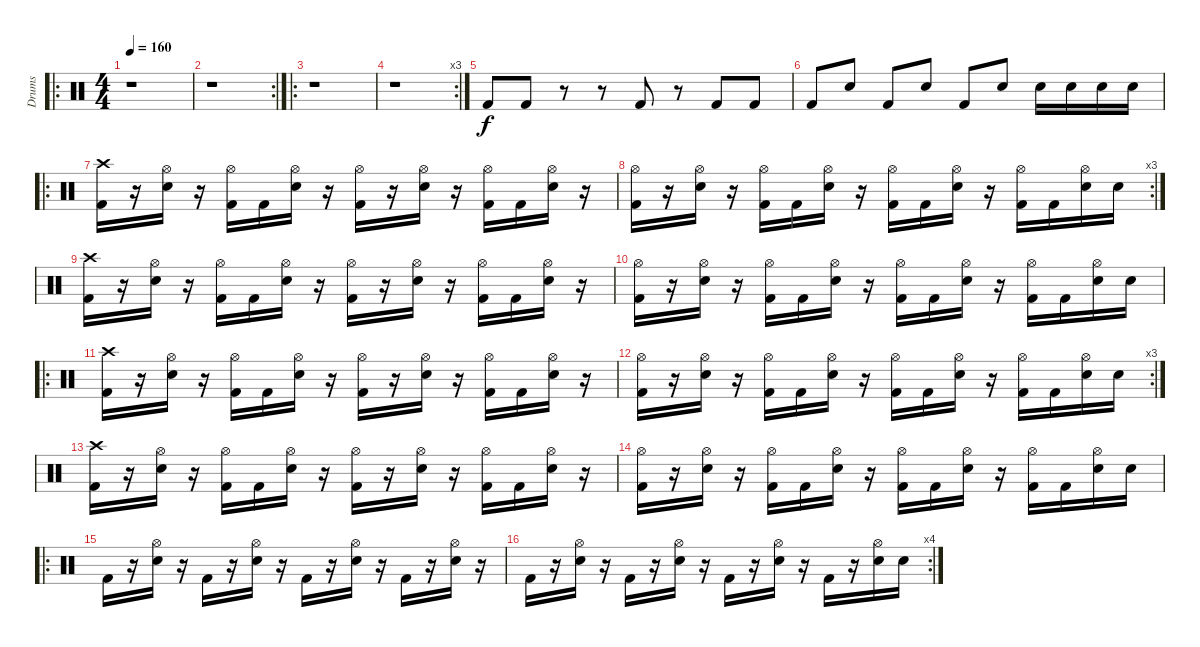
\track ("Drums" "Drums") {instrument percussion}
\staff {score}
\articulation defaults
\ro
\ts (4 4)
\tempo 160
\clef neutral
\ks c
r.1{dy f} |
\rc 2
r.1 |
\ro
r.1 |
\rc 3
r.1 |
"Kick (hit) 2".8 "Kick (hit) 2".8 r.8 r.8 "Kick (hit) 2".8 r.8 "Kick (hit) 2".8 "Kick (hit) 2".8 |
"Kick (hit) 2".8 "Electric Snare (hit)".8 "Kick (hit) 2".8 "Electric Snare (hit)".8 "Kick (hit) 2".8 "Electric Snare (hit)".8 "Electric Snare (hit)".16 "Electric Snare (hit)".16 "Electric Snare (hit)".16 "Electric Snare (hit)".16 |
\ro
("Crash high (hit)" "Kick (hit) 2").16 r.16 ("Hi-Hat (open)" "Electric Snare (hit)").16 r.16 ("Hi-Hat (open)" "Kick (hit) 2").16 "Kick (hit) 2".16 ("Hi-Hat (open)" "Electric Snare (hit)").16 r.16 ("Hi-Hat (open)" "Kick (hit) 2").16 r.16 ("Hi-Hat (open)" "Electric Snare (hit)").16 r.16 ("Hi-Hat (open)" "Kick (hit) 2").16 "Kick (hit) 2".16 ("Hi-Hat (open)" "Electric Snare (hit)").16 r.16 |
\rc 3
("Hi-Hat (open)" "Kick (hit) 2").16 r.16 ("Hi-Hat (open)" "Electric Snare (hit)").16 r.16 ("Hi-Hat (open)" "Kick (hit) 2").16 "Kick (hit) 2".16 ("Hi-Hat (open)" "Electric Snare (hit)").16 r.16 ("Hi-Hat (open)" "Kick (hit) 2").16 "Kick (hit) 2".16 ("Hi-Hat (open)" "Electric Snare (hit)").16 r.16 ("Hi-Hat (open)" "Kick (hit) 2").16 "Kick (hit) 2".16 ("Hi-Hat (open)" "Electric Snare (hit)").16 "Electric Snare (hit)".16 |
("Crash high (hit)" "Kick (hit) 2").16 r.16 ("Hi-Hat (open)" "Electric Snare (hit)").16 r.16 ("Hi-Hat (open)" "Kick (hit) 2").16 "Kick (hit) 2".16 ("Hi-Hat (open)" "Electric Snare (hit)").16 r.16 ("Hi-Hat (open)" "Kick (hit) 2").16 r.16 ("Hi-Hat (open)" "Electric Snare (hit)").16 r.16 ("Hi-Hat (open)" "Kick (hit) 2").16 "Kick (hit) 2".16 ("Hi-Hat (open)" "Electric Snare (hit)").16 r.16 |
("Hi-Hat (open)" "Kick (hit) 2").16 r.16 ("Hi-Hat (open)" "Electric Snare (hit)").16 r.16 ("Hi-Hat (open)" "Kick (hit) 2").16 "Kick (hit) 2".16 ("Hi-Hat (open)" "Electric Snare (hit)").16 r.16 ("Hi-Hat (open)" "Kick (hit) 2").16 "Kick (hit) 2".16 ("Hi-Hat (open)" "Electric Snare (hit)").16 r.16 ("Hi-Hat (open)" "Kick (hit) 2").16 "Kick (hit) 2".16 ("Hi-Hat (open)" "Electric Snare (hit)").16 "Electric Snare (hit)".16 |
\ro
("Crash high (hit)" "Kick (hit) 2").16 r.16 ("Hi-Hat (open)" "Electric Snare (hit)").16 r.16 ("Hi-Hat (open)" "Kick (hit) 2").16 "Kick (hit) 2".16 ("Hi-Hat (open)" "Electric Snare (hit)").16 r.16 ("Hi-Hat (open)" "Kick (hit) 2").16 r.16 ("Hi-Hat (open)" "Electric Snare (hit)").16 r.16 ("Hi-Hat (open)" "Kick (hit) 2").16 "Kick (hit) 2".16 ("Hi-Hat (open)" "Electric Snare (hit)").16 r.16 |
\rc 3
("Hi-Hat (open)" "Kick (hit) 2").16 r.16 ("Hi-Hat (open)" "Electric Snare (hit)").16 r.16 ("Hi-Hat (open)" "Kick (hit) 2").16 "Kick (hit) 2".16 ("Hi-Hat (open)" "Electric Snare (hit)").16 r.16 ("Hi-Hat (open)" "Kick (hit) 2").16 "Kick (hit) 2".16 ("Hi-Hat (open)" "Electric Snare (hit)").16 r.16 ("Hi-Hat (open)" "Kick (hit) 2").16 "Kick (hit) 2".16 ("Hi-Hat (open)" "Electric Snare (hit)").16 "Electric Snare (hit)".16 |
("Crash high (hit)" "Kick (hit) 2").16 r.16 ("Hi-Hat (open)" "Electric Snare (hit)").16 r.16 ("Hi-Hat (open)" "Kick (hit) 2").16 "Kick (hit) 2".16 ("Hi-Hat (open)" "Electric Snare (hit)").16 r.16 ("Hi-Hat (open)" "Kick (hit) 2").16 r.16 ("Hi-Hat (open)" "Electric Snare (hit)").16 r.16 ("Hi-Hat (open)" "Kick (hit) 2").16 "Kick (hit) 2".16 ("Hi-Hat (open)" "Electric Snare (hit)").16 r.16 |
("Hi-Hat (open)" "Kick (hit) 2").16 r.16 ("Hi-Hat (open)" "Electric Snare (hit)").16 r.16 ("Hi-Hat (open)" "Kick (hit) 2").16 "Kick (hit) 2".16 ("Hi-Hat (open)" "Electric Snare (hit)").16 r.16 ("Hi-Hat (open)" "Kick (hit) 2").16 "Kick (hit) 2".16 ("Hi-Hat (open)" "Electric Snare (hit)").16 r.16 ("Hi-Hat (open)" "Kick (hit) 2").16 "Kick (hit) 2".16 ("Hi-Hat (open)" "Electric Snare (hit)").16 "Electric Snare (hit)".16 |
\ro "Kick (hit) 2".16
r.16 ("Hi-Hat (open)" "Electric Snare (hit)").16 r.16 "Kick (hit) 2".16 r.16 ("Hi-Hat (open)" "Electric Snare (hit)").16 r.16 "Kick (hit) 2".16 r.16 ("Hi-Hat (open)" "Electric Snare (hit)").16 r.16 "Kick (hit) 2".16 r.16 ("Hi-Hat (open)" "Electric Snare (hit)").16 r.16 |
\rc 4 "Kick (hit) 2".16
r.16 ("Hi-Hat (open)" "Electric Snare (hit)").16 r.16 "Kick (hit) 2".16 r.16 ("Hi-Hat (open)" "Electric Snare (hit)").16 r.16 "Kick (hit) 2".16 r.16 ("Hi-Hat (open)" "Electric Snare (hit)").16 r.16 "Kick (hit) 2".16 r.16 ("Hi-Hat (open)" "Electric Snare (hit)").16 "Electric Snare (hit)".16
